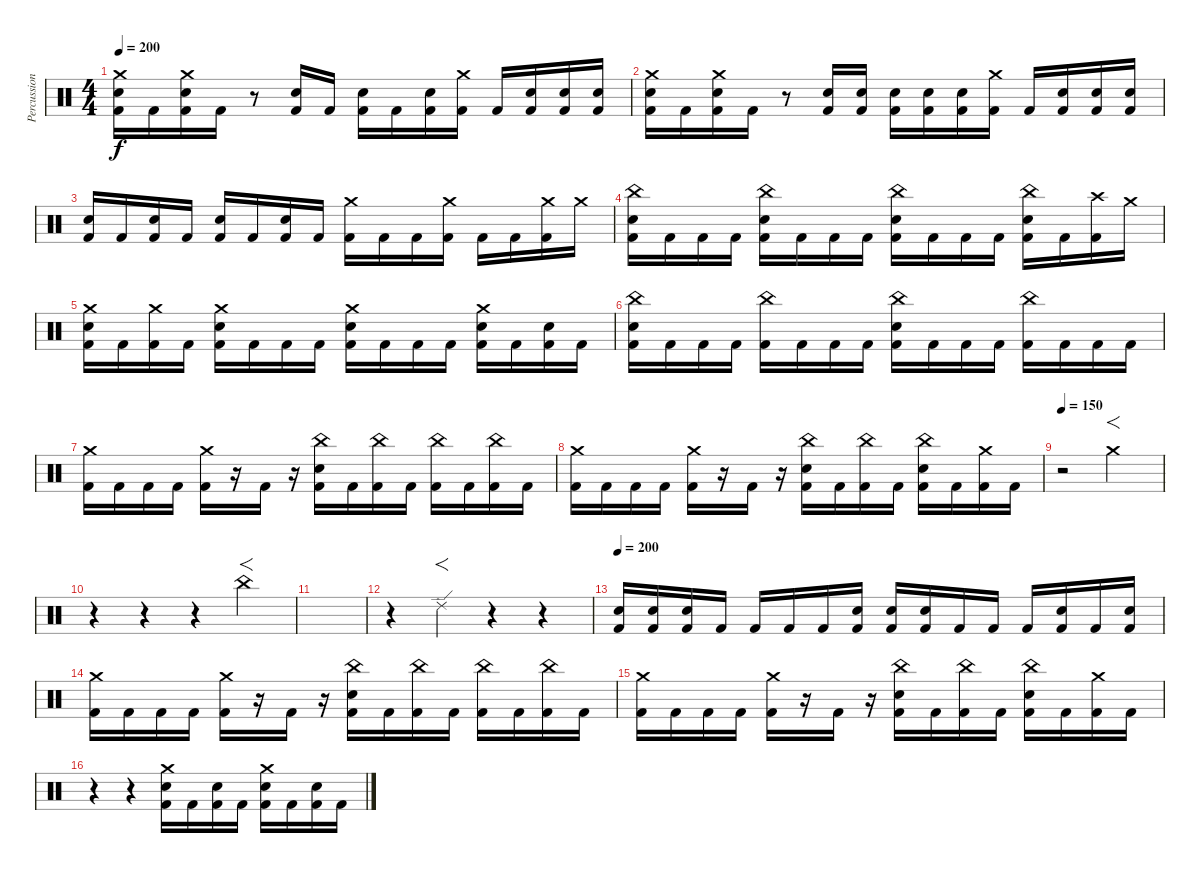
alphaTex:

\track ("Percussion" "Percussion") {instrument percussion}
\staff {score}
\articulation defaults
\ts (4 4)
\tempo 200
\clef neutral
\ks c
("Crash medium (hit)" "Snare (hit) 2" "Kick (hit) 2").16{dy f} "Kick (hit) 2".16 ("Crash medium (hit)" "Snare (hit) 2" "Kick (hit) 2").16 "Kick (hit) 2".16 r.8 ("Snare (hit) 2" "Kick (hit) 2").16 "Kick (hit) 2".16 ("Snare (hit) 2" "Kick (hit) 2").16 "Kick (hit) 2".16 ("Snare (hit) 2" "Kick (hit) 2").16 ("Crash medium (hit)" "Kick (hit) 2").16 "Kick (hit) 2".16 ("Snare (hit) 2" "Kick (hit) 2").16 ("Snare (hit) 2" "Kick (hit) 2").16 ("Snare (hit) 2" "Kick (hit) 2").16 |
("Crash medium (hit)" "Snare (hit) 2" "Kick (hit) 2").16 "Kick (hit) 2".16 ("Crash medium (hit)" "Snare (hit) 2" "Kick (hit) 2").16 "Kick (hit) 2".16 r.8 ("Snare (hit) 2" "Kick (hit) 2").16 ("Snare (hit) 2" "Kick (hit) 2").16 ("Snare (hit) 2" "Kick (hit) 2").16 ("Snare (hit) 2" "Kick (hit) 2").16 ("Snare (hit) 2" "Kick (hit) 2").16 ("Crash medium (hit)" "Kick (hit) 2").16 "Kick (hit) 2".16 ("Snare (hit) 2" "Kick (hit) 2").16 ("Snare (hit) 2" "Kick (hit) 2").16 ("Snare (hit) 2" "Kick (hit) 2").16 |
("Snare (hit) 2" "Kick (hit) 2").16 "Kick (hit) 2".16 ("Snare (hit) 2" "Kick (hit) 2").16 "Kick (hit) 2".16 ("Snare (hit) 2" "Kick (hit) 2").16 "Kick (hit) 2".16 ("Snare (hit) 2" "Kick (hit) 2").16 "Kick (hit) 2".16 ("Crash medium (hit)" "Kick (hit) 2").16 "Kick (hit) 2".16 "Kick (hit) 2".16 ("Crash medium (hit)" "Kick (hit) 2").16 "Kick (hit) 2".16 "Kick (hit) 2".16 ("Crash medium (hit)" "Kick (hit) 2").16 "Crash medium (hit)".16 |
("Snare (hit) 2" "China (hit)" "Kick (hit) 2").16 "Kick (hit) 2".16 "Kick (hit) 2".16 "Kick (hit) 2".16 ("Snare (hit) 2" "China (hit)" "Kick (hit) 2").16 "Kick (hit) 2".16 "Kick (hit) 2".16 "Kick (hit) 2".16 ("Snare (hit) 2" "China (hit)" "Kick (hit) 2").16 "Kick (hit) 2".16 "Kick (hit) 2".16 "Kick (hit) 2".16 ("Snare (hit) 2" "China (hit)" "Kick (hit) 2").16 "Kick (hit) 2".16 ("Crash high (hit)" "Kick (hit) 2").16 "Crash medium (hit)".16 |
("Crash medium (hit)" "Snare (hit) 2" "Kick (hit) 2").16 "Kick (hit) 2".16 ("Crash medium (hit)" "Kick (hit) 2").16 "Kick (hit) 2".16 ("Crash medium (hit)" "Snare (hit) 2" "Kick (hit) 2").16 "Kick (hit) 2".16 "Kick (hit) 2".16 "Kick (hit) 2".16 ("Crash medium (hit)" "Snare (hit) 2" "Kick (hit) 2").16 "Kick (hit) 2".16 "Kick (hit) 2".16 "Kick (hit) 2".16 ("Crash medium (hit)" "Snare (hit) 2" "Kick (hit) 2").16 "Kick (hit) 2".16 ("Snare (hit) 2" "Kick (hit) 2").16 "Kick (hit) 2".16 |
("China (hit)" "Snare (hit) 2" "Kick (hit) 2").16 "Kick (hit) 2".16 "Kick (hit) 2".16 "Kick (hit) 2".16 ("China (hit)" "Kick (hit) 2").16 "Kick (hit) 2".16 "Kick (hit) 2".16 "Kick (hit) 2".16 ("China (hit)" "Snare (hit) 2" "Kick (hit) 2").16 "Kick (hit) 2".16 "Kick (hit) 2".16 "Kick (hit) 2".16 ("China (hit)" "Kick (hit) 2").16 "Kick (hit) 2".16 "Kick (hit) 2".16 "Kick (hit) 2".16 |
("Crash medium (hit)" "Kick (hit) 2").16 "Kick (hit) 2".16 "Kick (hit) 2".16 "Kick (hit) 2".16 ("Crash medium (hit)" "Kick (hit) 2").16 r.16 "Kick (hit) 2".16 r.16 ("China (hit)" "Snare (hit) 2" "Kick (hit) 2").16 "Kick (hit) 2".16 ("China (hit)" "Kick (hit) 2").16 "Kick (hit) 2".16 ("China (hit)" "Kick (hit) 2").16 "Kick (hit) 2".16 ("China (hit)" "Kick (hit) 2").16 "Kick (hit) 2".16 |
("Crash medium (hit)" "Kick (hit) 2").16 "Kick (hit) 2".16 "Kick (hit) 2".16 "Kick (hit) 2".16 ("Crash medium (hit)" "Kick (hit) 2").16 r.16 "Kick (hit) 2".16 r.16 ("China (hit)" "Snare (hit) 2" "Kick (hit) 2").16 "Kick (hit) 2".16 ("China (hit)" "Kick (hit) 2").16 "Kick (hit) 2".16 ("China (hit)" "Snare (hit) 2" "Kick (hit) 2").16 "Kick (hit) 2".16 ("Crash medium (hit)" "Kick (hit) 2").16 "Kick (hit) 2".16 |
\tempo 150
r.2 "Crash medium (hit)".2{f} |
r.4 r.4 r.4 "China (hit)".4{f} |
|
r.4 "Ride (edge) 2".4{f} r.4 r.4 |
\tempo 200
("Snare (hit) 2" "Kick (hit) 2").16 ("Snare (hit) 2" "Kick (hit) 2").16 ("Snare (hit) 2" "Kick (hit) 2").16 "Kick (hit) 2".16 "Kick (hit) 2".16 "Kick (hit) 2".16 "Kick (hit) 2".16 ("Snare (hit) 2" "Kick (hit) 2").16 ("Snare (hit) 2" "Kick (hit) 2").16 ("Snare (hit) 2" "Kick (hit) 2").16 "Kick (hit) 2".16 "Kick (hit) 2".16 "Kick (hit) 2".16 ("Snare (hit) 2" "Kick (hit) 2").16 "Kick (hit) 2".16 ("Snare (hit) 2" "Kick (hit) 2").16 |
("Crash medium (hit)" "Kick (hit) 2").16 "Kick (hit) 2".16 "Kick (hit) 2".16 "Kick (hit) 2".16 ("Crash medium (hit)" "Kick (hit) 2").16 r.16 "Kick (hit) 2".16 r.16 ("China (hit)" "Snare (hit) 2" "Kick (hit) 2").16 "Kick (hit) 2".16 ("China (hit)" "Kick (hit) 2").16 "Kick (hit) 2".16 ("China (hit)" "Kick (hit) 2").16 "Kick (hit) 2".16 ("China (hit)" "Kick (hit) 2").16 "Kick (hit) 2".16 |
("Crash medium (hit)" "Kick (hit) 2").16 "Kick (hit) 2".16 "Kick (hit) 2".16 "Kick (hit) 2".16 ("Crash medium (hit)" "Kick (hit) 2").16 r.16 "Kick (hit) 2".16 r.16 ("China (hit)" "Snare (hit) 2" "Kick (hit) 2").16 "Kick (hit) 2".16 ("China (hit)" "Kick (hit) 2").16 "Kick (hit) 2".16 ("China (hit)" "Snare (hit) 2" "Kick (hit) 2").16 "Kick (hit) 2".16 ("Crash medium (hit)" "Kick (hit) 2").16 "Kick (hit) 2".16 |
r.4 r.4 ("Crash medium (hit)" "Snare (hit) 2" "Kick (hit) 2").16 "Kick (hit) 2".16 ("Snare (hit) 2" "Kick (hit) 2").16 "Kick (hit) 2".16 ("Crash medium (hit)" "Snare (hit) 2" "Kick (hit) 2").16 "Kick (hit) 2".16 ("Snare (hit) 2" "Kick (hit) 2").16 "Kick (hit) 2".16
